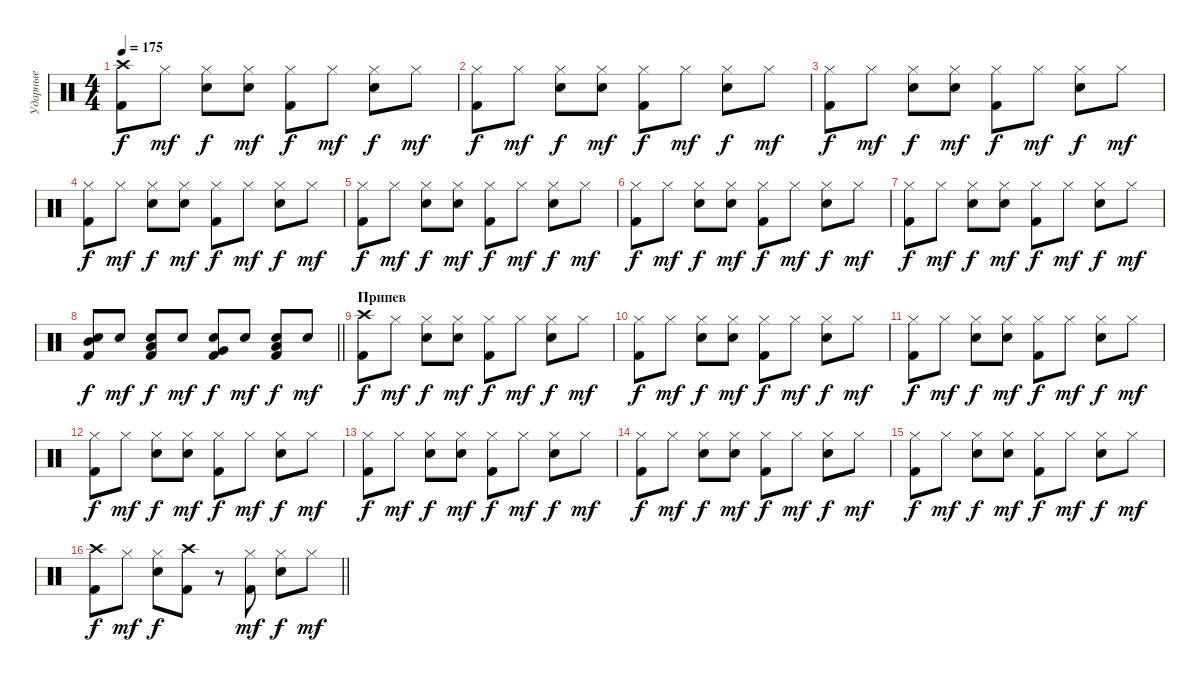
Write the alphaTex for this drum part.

\track ("Ударные" "Ударные") {instrument percussion}
\staff {score}
\articulation defaults
\ts (4 4)
\section ("" "")
\tempo 175
\clef neutral
\ks c
("Crash high (hit)" "Kick (hit) 2").8{dy f} "Hi-Hat (closed)".8{dy mf} ("Hi-Hat (closed)" "Snare (hit) 2").8{dy f} ("Hi-Hat (closed)" "Snare (hit) 2").8{dy mf} ("Hi-Hat (closed)" "Kick (hit) 2").8{dy f} "Hi-Hat (closed)".8{dy mf} ("Hi-Hat (closed)" "Snare (hit) 2").8{dy f} "Hi-Hat (closed)".8{dy mf} |
("Hi-Hat (closed)" "Kick (hit) 2").8{dy f} "Hi-Hat (closed)".8{dy mf} ("Hi-Hat (closed)" "Snare (hit) 2").8{dy f} ("Hi-Hat (closed)" "Snare (hit) 2").8{dy mf} ("Hi-Hat (closed)" "Kick (hit) 2").8{dy f} "Hi-Hat (closed)".8{dy mf} ("Hi-Hat (closed)" "Snare (hit) 2").8{dy f} "Hi-Hat (closed)".8{dy mf} |
("Hi-Hat (closed)" "Kick (hit) 2").8{dy f} "Hi-Hat (closed)".8{dy mf} ("Hi-Hat (closed)" "Snare (hit) 2").8{dy f} ("Hi-Hat (closed)" "Snare (hit) 2").8{dy mf} ("Hi-Hat (closed)" "Kick (hit) 2").8{dy f} "Hi-Hat (closed)".8{dy mf} ("Hi-Hat (closed)" "Snare (hit) 2").8{dy f} "Hi-Hat (closed)".8{dy mf} |
("Hi-Hat (closed)" "Kick (hit) 2").8{dy f} "Hi-Hat (closed)".8{dy mf} ("Hi-Hat (closed)" "Snare (hit) 2").8{dy f} ("Hi-Hat (closed)" "Snare (hit) 2").8{dy mf} ("Hi-Hat (closed)" "Kick (hit) 2").8{dy f} "Hi-Hat (closed)".8{dy mf} ("Hi-Hat (closed)" "Snare (hit) 2").8{dy f} "Hi-Hat (closed)".8{dy mf} |
("Hi-Hat (closed)" "Kick (hit) 2").8{dy f} "Hi-Hat (closed)".8{dy mf} ("Hi-Hat (closed)" "Snare (hit) 2").8{dy f} ("Hi-Hat (closed)" "Snare (hit) 2").8{dy mf} ("Hi-Hat (closed)" "Kick (hit) 2").8{dy f} "Hi-Hat (closed)".8{dy mf} ("Hi-Hat (closed)" "Snare (hit) 2").8{dy f} "Hi-Hat (closed)".8{dy mf} |
("Hi-Hat (closed)" "Kick (hit) 2").8{dy f} "Hi-Hat (closed)".8{dy mf} ("Hi-Hat (closed)" "Snare (hit) 2").8{dy f} ("Hi-Hat (closed)" "Snare (hit) 2").8{dy mf} ("Hi-Hat (closed)" "Kick (hit) 2").8{dy f} "Hi-Hat (closed)".8{dy mf} ("Hi-Hat (closed)" "Snare (hit) 2").8{dy f} "Hi-Hat (closed)".8{dy mf} |
("Hi-Hat (closed)" "Kick (hit) 2").8{dy f} "Hi-Hat (closed)".8{dy mf} ("Hi-Hat (closed)" "Snare (hit) 2").8{dy f} ("Hi-Hat (closed)" "Snare (hit) 2").8{dy mf} ("Hi-Hat (closed)" "Kick (hit) 2").8{dy f} "Hi-Hat (closed)".8{dy mf} ("Hi-Hat (closed)" "Snare (hit) 2").8{dy f} "Hi-Hat (closed)".8{dy mf} |
\barLineRight lightlight
("Snare (hit) 2" "Mid Tom (hit)" "Kick (hit) 2").8{dy f} "Snare (hit) 2".8{dy mf} ("Snare (hit) 2" "Low Tom (hit)" "Kick (hit) 2").8{dy f} "Snare (hit) 2".8{dy mf} ("Snare (hit) 2" "Very Low Tom (hit)" "Kick (hit) 2").8{dy f} "Snare (hit) 2".8{dy mf} ("Snare (hit) 2" "Low Floor Tom (hit)" "Kick (hit) 2").8{dy f} "Snare (hit) 2".8{dy mf} |
\section ("" "Припев")
("Crash high (hit)" "Kick (hit) 2").8{dy f} "Hi-Hat (closed)".8{dy mf} ("Hi-Hat (closed)" "Snare (hit) 2").8{dy f} ("Hi-Hat (closed)" "Snare (hit) 2").8{dy mf} ("Hi-Hat (closed)" "Kick (hit) 2").8{dy f} "Hi-Hat (closed)".8{dy mf} ("Hi-Hat (closed)" "Snare (hit) 2").8{dy f} "Hi-Hat (closed)".8{dy mf} |
("Hi-Hat (closed)" "Kick (hit) 2").8{dy f} "Hi-Hat (closed)".8{dy mf} ("Hi-Hat (closed)" "Snare (hit) 2").8{dy f} ("Hi-Hat (closed)" "Snare (hit) 2").8{dy mf} ("Hi-Hat (closed)" "Kick (hit) 2").8{dy f} "Hi-Hat (closed)".8{dy mf} ("Hi-Hat (closed)" "Snare (hit) 2").8{dy f} "Hi-Hat (closed)".8{dy mf} |
("Hi-Hat (closed)" "Kick (hit) 2").8{dy f} "Hi-Hat (closed)".8{dy mf} ("Hi-Hat (closed)" "Snare (hit) 2").8{dy f} ("Hi-Hat (closed)" "Snare (hit) 2").8{dy mf} ("Hi-Hat (closed)" "Kick (hit) 2").8{dy f} "Hi-Hat (closed)".8{dy mf} ("Hi-Hat (closed)" "Snare (hit) 2").8{dy f} "Hi-Hat (closed)".8{dy mf} |
("Hi-Hat (closed)" "Kick (hit) 2").8{dy f} "Hi-Hat (closed)".8{dy mf} ("Hi-Hat (closed)" "Snare (hit) 2").8{dy f} ("Hi-Hat (closed)" "Snare (hit) 2").8{dy mf} ("Hi-Hat (closed)" "Kick (hit) 2").8{dy f} "Hi-Hat (closed)".8{dy mf} ("Hi-Hat (closed)" "Snare (hit) 2").8{dy f} "Hi-Hat (closed)".8{dy mf} |
("Hi-Hat (closed)" "Kick (hit) 2").8{dy f} "Hi-Hat (closed)".8{dy mf} ("Hi-Hat (closed)" "Snare (hit) 2").8{dy f} ("Hi-Hat (closed)" "Snare (hit) 2").8{dy mf} ("Hi-Hat (closed)" "Kick (hit) 2").8{dy f} "Hi-Hat (closed)".8{dy mf} ("Hi-Hat (closed)" "Snare (hit) 2").8{dy f} "Hi-Hat (closed)".8{dy mf} |
("Hi-Hat (closed)" "Kick (hit) 2").8{dy f} "Hi-Hat (closed)".8{dy mf} ("Hi-Hat (closed)" "Snare (hit) 2").8{dy f} ("Hi-Hat (closed)" "Snare (hit) 2").8{dy mf} ("Hi-Hat (closed)" "Kick (hit) 2").8{dy f} "Hi-Hat (closed)".8{dy mf} ("Hi-Hat (closed)" "Snare (hit) 2").8{dy f} "Hi-Hat (closed)".8{dy mf} |
("Hi-Hat (closed)" "Kick (hit) 2").8{dy f} "Hi-Hat (closed)".8{dy mf} ("Hi-Hat (closed)" "Snare (hit) 2").8{dy f} ("Hi-Hat (closed)" "Snare (hit) 2").8{dy mf} ("Hi-Hat (closed)" "Kick (hit) 2").8{dy f} "Hi-Hat (closed)".8{dy mf} ("Hi-Hat (closed)" "Snare (hit) 2").8{dy f} "Hi-Hat (closed)".8{dy mf} |
\barLineRight lightlight
("Crash high (hit)" "Kick (hit) 2").8{dy f} "Hi-Hat (closed)".8{dy mf} ("Hi-Hat (closed)" "Snare (hit) 2").8{dy f} ("Crash high (hit)" "Kick (hit) 2").8 r.8 ("Hi-Hat (closed)" "Kick (hit) 2").8{dy mf} ("Hi-Hat (closed)" "Snare (hit) 2").8{dy f} "Hi-Hat (closed)".8{dy mf}
